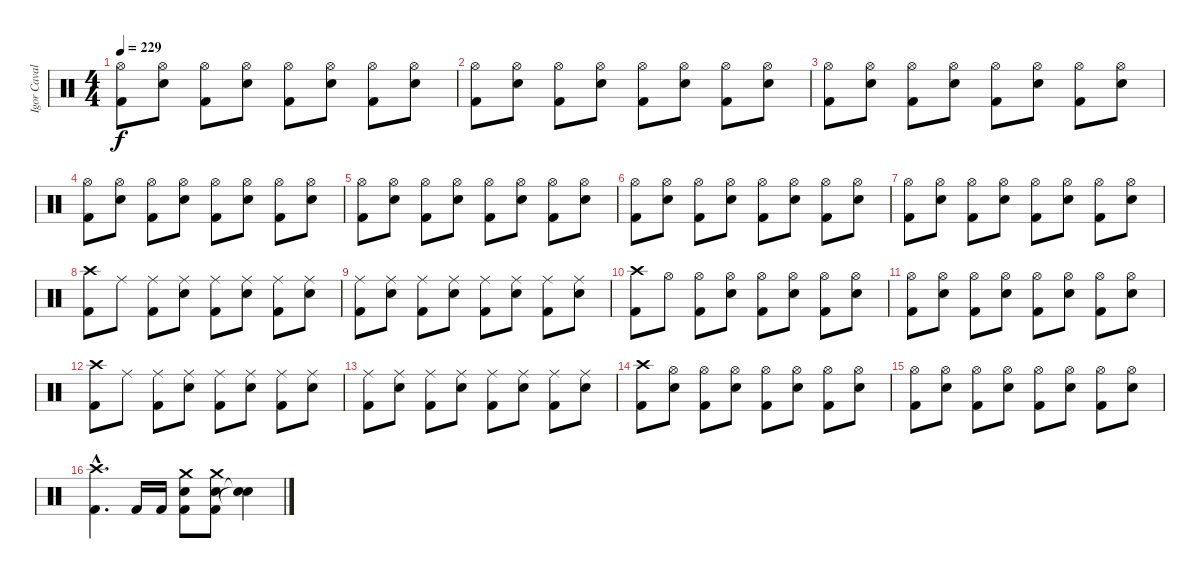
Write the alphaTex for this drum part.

\track ("Igor Cavalera" "Igor Caval") {instrument percussion}
\staff {score}
\articulation defaults
\ts (4 4)
\tempo 229
\clef neutral
\ks c
("Kick (hit) 2" "Hi-Hat (open)").8{dy f} ("Snare (hit) 2" "Hi-Hat (open)").8 ("Kick (hit) 2" "Hi-Hat (open)").8 ("Snare (hit) 2" "Hi-Hat (open)").8 ("Kick (hit) 2" "Hi-Hat (open)").8 ("Snare (hit) 2" "Hi-Hat (open)").8 ("Kick (hit) 2" "Hi-Hat (open)").8 ("Snare (hit) 2" "Hi-Hat (open)").8 |
("Kick (hit) 2" "Hi-Hat (open)").8 ("Snare (hit) 2" "Hi-Hat (open)").8 ("Kick (hit) 2" "Hi-Hat (open)").8 ("Snare (hit) 2" "Hi-Hat (open)").8 ("Kick (hit) 2" "Hi-Hat (open)").8 ("Snare (hit) 2" "Hi-Hat (open)").8 ("Kick (hit) 2" "Hi-Hat (open)").8 ("Snare (hit) 2" "Hi-Hat (open)").8 |
("Kick (hit) 2" "Hi-Hat (open)").8 ("Snare (hit) 2" "Hi-Hat (open)").8 ("Kick (hit) 2" "Hi-Hat (open)").8 ("Snare (hit) 2" "Hi-Hat (open)").8 ("Kick (hit) 2" "Hi-Hat (open)").8 ("Snare (hit) 2" "Hi-Hat (open)").8 ("Kick (hit) 2" "Hi-Hat (open)").8 ("Snare (hit) 2" "Hi-Hat (open)").8 |
("Kick (hit) 2" "Hi-Hat (open)").8 ("Snare (hit) 2" "Hi-Hat (open)").8 ("Kick (hit) 2" "Hi-Hat (open)").8 ("Snare (hit) 2" "Hi-Hat (open)").8 ("Kick (hit) 2" "Hi-Hat (open)").8 ("Snare (hit) 2" "Hi-Hat (open)").8 ("Kick (hit) 2" "Hi-Hat (open)").8 ("Snare (hit) 2" "Hi-Hat (open)").8 |
("Kick (hit) 2" "Hi-Hat (open)").8 ("Snare (hit) 2" "Hi-Hat (open)").8 ("Kick (hit) 2" "Hi-Hat (open)").8 ("Snare (hit) 2" "Hi-Hat (open)").8 ("Kick (hit) 2" "Hi-Hat (open)").8 ("Snare (hit) 2" "Hi-Hat (open)").8 ("Kick (hit) 2" "Hi-Hat (open)").8 ("Snare (hit) 2" "Hi-Hat (open)").8 |
("Kick (hit) 2" "Hi-Hat (open)").8 ("Snare (hit) 2" "Hi-Hat (open)").8 ("Kick (hit) 2" "Hi-Hat (open)").8 ("Snare (hit) 2" "Hi-Hat (open)").8 ("Kick (hit) 2" "Hi-Hat (open)").8 ("Snare (hit) 2" "Hi-Hat (open)").8 ("Kick (hit) 2" "Hi-Hat (open)").8 ("Snare (hit) 2" "Hi-Hat (open)").8 |
("Kick (hit) 2" "Hi-Hat (open)").8 ("Snare (hit) 2" "Hi-Hat (open)").8 ("Kick (hit) 2" "Hi-Hat (open)").8 ("Snare (hit) 2" "Hi-Hat (open)").8 ("Kick (hit) 2" "Hi-Hat (open)").8 ("Snare (hit) 2" "Hi-Hat (open)").8 ("Kick (hit) 2" "Hi-Hat (open)").8 ("Snare (hit) 2" "Hi-Hat (open)").8 |
("Kick (hit) 2" "Crash high (hit)").8 "Ride (middle)".8 ("Kick (hit) 2" "Ride (middle)").8 ("Snare (hit) 2" "Ride (middle)").8 ("Kick (hit) 2" "Ride (middle)").8 ("Snare (hit) 2" "Ride (middle)").8 ("Kick (hit) 2" "Ride (middle)").8 ("Snare (hit) 2" "Ride (middle)").8 |
("Kick (hit) 2" "Ride (middle)").8 ("Snare (hit) 2" "Ride (middle)").8 ("Kick (hit) 2" "Ride (middle)").8 ("Snare (hit) 2" "Ride (middle)").8 ("Kick (hit) 2" "Ride (middle)").8 ("Snare (hit) 2" "Ride (middle)").8 ("Kick (hit) 2" "Ride (middle)").8 ("Snare (hit) 2" "Ride (middle)").8 |
("Kick (hit) 2" "Crash high (hit)").8 "Hi-Hat (open)".8 ("Kick (hit) 2" "Hi-Hat (open)").8 ("Snare (hit) 2" "Hi-Hat (open)").8 ("Kick (hit) 2" "Hi-Hat (open)").8 ("Snare (hit) 2" "Hi-Hat (open)").8 ("Kick (hit) 2" "Hi-Hat (open)").8 ("Snare (hit) 2" "Hi-Hat (open)").8 |
("Kick (hit) 2" "Hi-Hat (open)").8 ("Snare (hit) 2" "Hi-Hat (open)").8 ("Kick (hit) 2" "Hi-Hat (open)").8 ("Snare (hit) 2" "Hi-Hat (open)").8 ("Kick (hit) 2" "Hi-Hat (open)").8 ("Snare (hit) 2" "Hi-Hat (open)").8 ("Kick (hit) 2" "Hi-Hat (open)").8 ("Snare (hit) 2" "Hi-Hat (open)").8 |
("Kick (hit) 2" "Crash high (hit)").8 "Ride (middle)".8 ("Kick (hit) 2" "Ride (middle)").8 ("Snare (hit) 2" "Ride (middle)").8 ("Kick (hit) 2" "Ride (middle)").8 ("Snare (hit) 2" "Ride (middle)").8 ("Kick (hit) 2" "Ride (middle)").8 ("Snare (hit) 2" "Ride (middle)").8 |
("Kick (hit) 2" "Ride (middle)").8 ("Snare (hit) 2" "Ride (middle)").8 ("Kick (hit) 2" "Ride (middle)").8 ("Snare (hit) 2" "Ride (middle)").8 ("Kick (hit) 2" "Ride (middle)").8 ("Snare (hit) 2" "Ride (middle)").8 ("Kick (hit) 2" "Ride (middle)").8 ("Snare (hit) 2" "Ride (middle)").8 |
("Kick (hit) 2" "Crash high (hit)").8 ("Snare (hit) 2" "Hi-Hat (open)").8 ("Kick (hit) 2" "Hi-Hat (open)").8 ("Snare (hit) 2" "Hi-Hat (open)").8 ("Kick (hit) 2" "Hi-Hat (open)").8 ("Snare (hit) 2" "Hi-Hat (open)").8 ("Kick (hit) 2" "Hi-Hat (open)").8 ("Snare (hit) 2" "Hi-Hat (open)").8 |
("Kick (hit) 2" "Hi-Hat (open)").8 ("Snare (hit) 2" "Hi-Hat (open)").8 ("Kick (hit) 2" "Hi-Hat (open)").8 ("Snare (hit) 2" "Hi-Hat (open)").8 ("Kick (hit) 2" "Hi-Hat (open)").8 ("Snare (hit) 2" "Hi-Hat (open)").8 ("Kick (hit) 2" "Hi-Hat (open)").8 ("Snare (hit) 2" "Hi-Hat (open)").8 |
("Kick (hit) 2"{hac} "Crash high (hit)"{hac}).4{d} "Kick (hit) 2".16 "Kick (hit) 2".16 ("Kick (hit) 2" "Snare (hit) 2" "Crash medium (hit)").8 ("Kick (hit) 2" "Snare (hit) 2" "Crash medium (hit)").8 ("Snare (hit)"{t} "Snare (hit)"{t}).4
